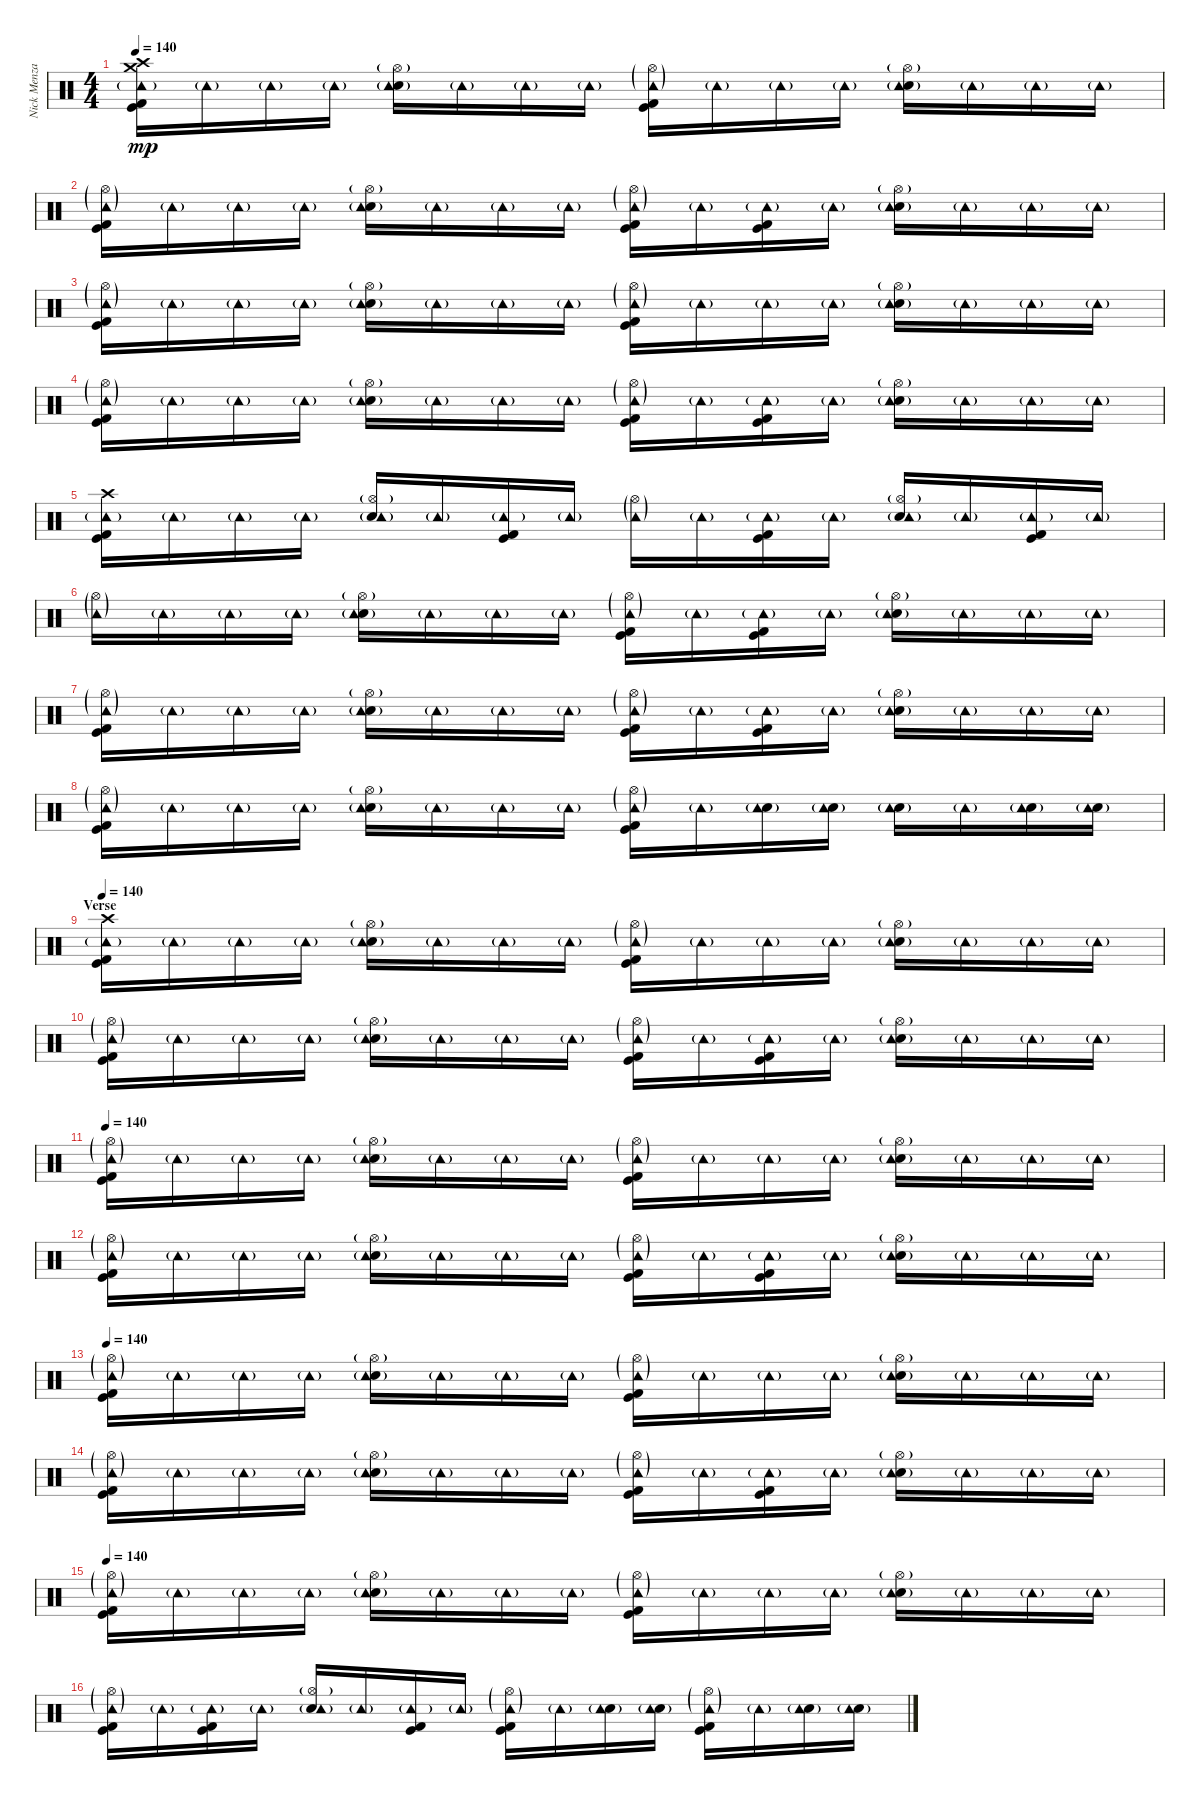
\track ("Nick Menza" "Nick Menza") {instrument percussion}
\staff {score}
\articulation defaults
\ts (4 4)
\tempo 140
\clef neutral
\ks c
("Crash high (hit)" "Crash medium (hit)" "Kick (hit)" "Kick (hit) 2" "Tambourine (hit)"{g}).16{dy mp} "Tambourine (hit)"{g}.16 "Tambourine (hit)"{g}.16 "Tambourine (hit)"{g}.16 ("Hi-Hat (open)"{g} "Electric Snare (hit)" "Tambourine (hit)"{g}).16 "Tambourine (hit)"{g}.16 "Tambourine (hit)"{g}.16 "Tambourine (hit)"{g}.16 ("Hi-Hat (open)"{g} "Kick (hit)" "Kick (hit) 2" "Tambourine (hit)"{g}).16 "Tambourine (hit)"{g}.16 "Tambourine (hit)"{g}.16 "Tambourine (hit)"{g}.16 ("Hi-Hat (open)"{g} "Electric Snare (hit)" "Tambourine (hit)"{g}).16 "Tambourine (hit)"{g}.16 "Tambourine (hit)"{g}.16 "Tambourine (hit)"{g}.16 |
("Hi-Hat (open)"{g} "Kick (hit)" "Kick (hit) 2" "Tambourine (hit)"{g}).16 "Tambourine (hit)"{g}.16 "Tambourine (hit)"{g}.16 "Tambourine (hit)"{g}.16 ("Hi-Hat (open)"{g} "Electric Snare (hit)" "Tambourine (hit)"{g}).16 "Tambourine (hit)"{g}.16 "Tambourine (hit)"{g}.16 "Tambourine (hit)"{g}.16 ("Hi-Hat (open)"{g} "Kick (hit)" "Kick (hit) 2" "Tambourine (hit)"{g}).16 "Tambourine (hit)"{g}.16 ("Kick (hit)" "Kick (hit) 2" "Tambourine (hit)"{g}).16 "Tambourine (hit)"{g}.16 ("Hi-Hat (open)"{g} "Electric Snare (hit)" "Tambourine (hit)"{g}).16 "Tambourine (hit)"{g}.16 "Tambourine (hit)"{g}.16 "Tambourine (hit)"{g}.16 |
("Hi-Hat (open)"{g} "Kick (hit)" "Kick (hit) 2" "Tambourine (hit)"{g}).16 "Tambourine (hit)"{g}.16 "Tambourine (hit)"{g}.16 "Tambourine (hit)"{g}.16 ("Hi-Hat (open)"{g} "Electric Snare (hit)" "Tambourine (hit)"{g}).16 "Tambourine (hit)"{g}.16 "Tambourine (hit)"{g}.16 "Tambourine (hit)"{g}.16 ("Hi-Hat (open)"{g} "Kick (hit)" "Kick (hit) 2" "Tambourine (hit)"{g}).16 "Tambourine (hit)"{g}.16 "Tambourine (hit)"{g}.16 "Tambourine (hit)"{g}.16 ("Hi-Hat (open)"{g} "Electric Snare (hit)" "Tambourine (hit)"{g}).16 "Tambourine (hit)"{g}.16 "Tambourine (hit)"{g}.16 "Tambourine (hit)"{g}.16 |
("Hi-Hat (open)"{g} "Kick (hit)" "Kick (hit) 2" "Tambourine (hit)"{g}).16 "Tambourine (hit)"{g}.16 "Tambourine (hit)"{g}.16 "Tambourine (hit)"{g}.16 ("Hi-Hat (open)"{g} "Electric Snare (hit)" "Tambourine (hit)"{g}).16 "Tambourine (hit)"{g}.16 "Tambourine (hit)"{g}.16 "Tambourine (hit)"{g}.16 ("Hi-Hat (open)"{g} "Kick (hit)" "Kick (hit) 2" "Tambourine (hit)"{g}).16 "Tambourine (hit)"{g}.16 ("Kick (hit)" "Kick (hit) 2" "Tambourine (hit)"{g}).16 "Tambourine (hit)"{g}.16 ("Hi-Hat (open)"{g} "Electric Snare (hit)" "Tambourine (hit)"{g}).16 "Tambourine (hit)"{g}.16 "Tambourine (hit)"{g}.16 "Tambourine (hit)"{g}.16 |
("Crash high (hit)" "Kick (hit)" "Kick (hit) 2" "Tambourine (hit)"{g}).16 "Tambourine (hit)"{g}.16 "Tambourine (hit)"{g}.16 "Tambourine (hit)"{g}.16 ("Hi-Hat (open)"{g} "Electric Snare (hit)" "Tambourine (hit)"{g}).16 "Tambourine (hit)"{g}.16 ("Kick (hit)" "Kick (hit) 2" "Tambourine (hit)"{g}).16 "Tambourine (hit)"{g}.16 ("Hi-Hat (open)"{g} "Tambourine (hit)"{g}).16 "Tambourine (hit)"{g}.16 ("Kick (hit)" "Kick (hit) 2" "Tambourine (hit)"{g}).16 "Tambourine (hit)"{g}.16 ("Hi-Hat (open)"{g} "Electric Snare (hit)" "Tambourine (hit)"{g}).16 "Tambourine (hit)"{g}.16 ("Kick (hit)" "Kick (hit) 2" "Tambourine (hit)"{g}).16 "Tambourine (hit)"{g}.16 |
("Hi-Hat (open)"{g} "Tambourine (hit)"{g}).16 "Tambourine (hit)"{g}.16 "Tambourine (hit)"{g}.16 "Tambourine (hit)"{g}.16 ("Hi-Hat (open)"{g} "Electric Snare (hit)" "Tambourine (hit)"{g}).16 "Tambourine (hit)"{g}.16 "Tambourine (hit)"{g}.16 "Tambourine (hit)"{g}.16 ("Hi-Hat (open)"{g} "Kick (hit)" "Kick (hit) 2" "Tambourine (hit)"{g}).16 "Tambourine (hit)"{g}.16 ("Kick (hit)" "Kick (hit) 2" "Tambourine (hit)"{g}).16 "Tambourine (hit)"{g}.16 ("Hi-Hat (open)"{g} "Electric Snare (hit)" "Tambourine (hit)"{g}).16 "Tambourine (hit)"{g}.16 "Tambourine (hit)"{g}.16 "Tambourine (hit)"{g}.16 |
("Hi-Hat (open)"{g} "Kick (hit)" "Kick (hit) 2" "Tambourine (hit)"{g}).16 "Tambourine (hit)"{g}.16 "Tambourine (hit)"{g}.16 "Tambourine (hit)"{g}.16 ("Hi-Hat (open)"{g} "Electric Snare (hit)" "Tambourine (hit)"{g}).16 "Tambourine (hit)"{g}.16 "Tambourine (hit)"{g}.16 "Tambourine (hit)"{g}.16 ("Hi-Hat (open)"{g} "Kick (hit)" "Kick (hit) 2" "Tambourine (hit)"{g}).16 "Tambourine (hit)"{g}.16 ("Kick (hit)" "Kick (hit) 2" "Tambourine (hit)"{g}).16 "Tambourine (hit)"{g}.16 ("Hi-Hat (open)"{g} "Electric Snare (hit)" "Tambourine (hit)"{g}).16 "Tambourine (hit)"{g}.16 "Tambourine (hit)"{g}.16 "Tambourine (hit)"{g}.16 |
("Hi-Hat (open)"{g} "Kick (hit)" "Kick (hit) 2" "Tambourine (hit)"{g}).16 "Tambourine (hit)"{g}.16 "Tambourine (hit)"{g}.16 "Tambourine (hit)"{g}.16 ("Hi-Hat (open)"{g} "Electric Snare (hit)" "Tambourine (hit)"{g}).16 "Tambourine (hit)"{g}.16 "Tambourine (hit)"{g}.16 "Tambourine (hit)"{g}.16 ("Hi-Hat (open)"{g} "Kick (hit)" "Kick (hit) 2" "Tambourine (hit)"{g}).16 "Tambourine (hit)"{g}.16 ("Electric Snare (hit)" "Tambourine (hit)"{g}).16 ("Electric Snare (hit)" "Tambourine (hit)"{g}).16 ("Electric Snare (hit)" "Tambourine (hit)"{g}).16 "Tambourine (hit)"{g}.16 ("Electric Snare (hit)" "Tambourine (hit)"{g}).16 ("Electric Snare (hit)" "Tambourine (hit)"{g}).16 |
\section ("" "Verse")
\tempo 140
("Crash high (hit)" "Kick (hit)" "Kick (hit) 2" "Tambourine (hit)"{g}).16 "Tambourine (hit)"{g}.16 "Tambourine (hit)"{g}.16 "Tambourine (hit)"{g}.16 ("Hi-Hat (open)"{g} "Electric Snare (hit)" "Tambourine (hit)"{g}).16 "Tambourine (hit)"{g}.16 "Tambourine (hit)"{g}.16 "Tambourine (hit)"{g}.16 ("Hi-Hat (open)"{g} "Kick (hit)" "Kick (hit) 2" "Tambourine (hit)"{g}).16 "Tambourine (hit)"{g}.16 "Tambourine (hit)"{g}.16 "Tambourine (hit)"{g}.16 ("Hi-Hat (open)"{g} "Electric Snare (hit)" "Tambourine (hit)"{g}).16 "Tambourine (hit)"{g}.16 "Tambourine (hit)"{g}.16 "Tambourine (hit)"{g}.16 |
("Hi-Hat (open)"{g} "Kick (hit)" "Kick (hit) 2" "Tambourine (hit)"{g}).16 "Tambourine (hit)"{g}.16 "Tambourine (hit)"{g}.16 "Tambourine (hit)"{g}.16 ("Hi-Hat (open)"{g} "Electric Snare (hit)" "Tambourine (hit)"{g}).16 "Tambourine (hit)"{g}.16 "Tambourine (hit)"{g}.16 "Tambourine (hit)"{g}.16 ("Hi-Hat (open)"{g} "Kick (hit)" "Kick (hit) 2" "Tambourine (hit)"{g}).16 "Tambourine (hit)"{g}.16 ("Kick (hit)" "Kick (hit) 2" "Tambourine (hit)"{g}).16 "Tambourine (hit)"{g}.16 ("Hi-Hat (open)"{g} "Electric Snare (hit)" "Tambourine (hit)"{g}).16 "Tambourine (hit)"{g}.16 "Tambourine (hit)"{g}.16 "Tambourine (hit)"{g}.16 |
\tempo 140
("Hi-Hat (open)"{g} "Kick (hit)" "Kick (hit) 2" "Tambourine (hit)"{g}).16 "Tambourine (hit)"{g}.16 "Tambourine (hit)"{g}.16 "Tambourine (hit)"{g}.16 ("Hi-Hat (open)"{g} "Electric Snare (hit)" "Tambourine (hit)"{g}).16 "Tambourine (hit)"{g}.16 "Tambourine (hit)"{g}.16 "Tambourine (hit)"{g}.16 ("Hi-Hat (open)"{g} "Kick (hit)" "Kick (hit) 2" "Tambourine (hit)"{g}).16 "Tambourine (hit)"{g}.16 "Tambourine (hit)"{g}.16 "Tambourine (hit)"{g}.16 ("Hi-Hat (open)"{g} "Electric Snare (hit)" "Tambourine (hit)"{g}).16 "Tambourine (hit)"{g}.16 "Tambourine (hit)"{g}.16 "Tambourine (hit)"{g}.16 |
("Hi-Hat (open)"{g} "Kick (hit)" "Kick (hit) 2" "Tambourine (hit)"{g}).16 "Tambourine (hit)"{g}.16 "Tambourine (hit)"{g}.16 "Tambourine (hit)"{g}.16 ("Hi-Hat (open)"{g} "Electric Snare (hit)" "Tambourine (hit)"{g}).16 "Tambourine (hit)"{g}.16 "Tambourine (hit)"{g}.16 "Tambourine (hit)"{g}.16 ("Hi-Hat (open)"{g} "Kick (hit)" "Kick (hit) 2" "Tambourine (hit)"{g}).16 "Tambourine (hit)"{g}.16 ("Kick (hit)" "Kick (hit) 2" "Tambourine (hit)"{g}).16 "Tambourine (hit)"{g}.16 ("Hi-Hat (open)"{g} "Electric Snare (hit)" "Tambourine (hit)"{g}).16 "Tambourine (hit)"{g}.16 "Tambourine (hit)"{g}.16 "Tambourine (hit)"{g}.16 |
\tempo 140
("Hi-Hat (open)"{g} "Kick (hit)" "Kick (hit) 2" "Tambourine (hit)"{g}).16 "Tambourine (hit)"{g}.16 "Tambourine (hit)"{g}.16 "Tambourine (hit)"{g}.16 ("Hi-Hat (open)"{g} "Electric Snare (hit)" "Tambourine (hit)"{g}).16 "Tambourine (hit)"{g}.16 "Tambourine (hit)"{g}.16 "Tambourine (hit)"{g}.16 ("Hi-Hat (open)"{g} "Kick (hit)" "Kick (hit) 2" "Tambourine (hit)"{g}).16 "Tambourine (hit)"{g}.16 "Tambourine (hit)"{g}.16 "Tambourine (hit)"{g}.16 ("Hi-Hat (open)"{g} "Electric Snare (hit)" "Tambourine (hit)"{g}).16 "Tambourine (hit)"{g}.16 "Tambourine (hit)"{g}.16 "Tambourine (hit)"{g}.16 |
("Hi-Hat (open)"{g} "Kick (hit)" "Kick (hit) 2" "Tambourine (hit)"{g}).16 "Tambourine (hit)"{g}.16 "Tambourine (hit)"{g}.16 "Tambourine (hit)"{g}.16 ("Hi-Hat (open)"{g} "Electric Snare (hit)" "Tambourine (hit)"{g}).16 "Tambourine (hit)"{g}.16 "Tambourine (hit)"{g}.16 "Tambourine (hit)"{g}.16 ("Hi-Hat (open)"{g} "Kick (hit)" "Kick (hit) 2" "Tambourine (hit)"{g}).16 "Tambourine (hit)"{g}.16 ("Kick (hit)" "Kick (hit) 2" "Tambourine (hit)"{g}).16 "Tambourine (hit)"{g}.16 ("Hi-Hat (open)"{g} "Electric Snare (hit)" "Tambourine (hit)"{g}).16 "Tambourine (hit)"{g}.16 "Tambourine (hit)"{g}.16 "Tambourine (hit)"{g}.16 |
\tempo 140
("Hi-Hat (open)"{g} "Kick (hit)" "Kick (hit) 2" "Tambourine (hit)"{g}).16 "Tambourine (hit)"{g}.16 "Tambourine (hit)"{g}.16 "Tambourine (hit)"{g}.16 ("Hi-Hat (open)"{g} "Electric Snare (hit)" "Tambourine (hit)"{g}).16 "Tambourine (hit)"{g}.16 "Tambourine (hit)"{g}.16 "Tambourine (hit)"{g}.16 ("Hi-Hat (open)"{g} "Kick (hit)" "Kick (hit) 2" "Tambourine (hit)"{g}).16 "Tambourine (hit)"{g}.16 "Tambourine (hit)"{g}.16 "Tambourine (hit)"{g}.16 ("Hi-Hat (open)"{g} "Electric Snare (hit)" "Tambourine (hit)"{g}).16 "Tambourine (hit)"{g}.16 "Tambourine (hit)"{g}.16 "Tambourine (hit)"{g}.16 |
("Hi-Hat (open)"{g} "Kick (hit)" "Kick (hit) 2" "Tambourine (hit)"{g}).16 "Tambourine (hit)"{g}.16 ("Kick (hit)" "Kick (hit) 2" "Tambourine (hit)"{g}).16 "Tambourine (hit)"{g}.16 ("Hi-Hat (open)"{g} "Electric Snare (hit)" "Tambourine (hit)"{g}).16 "Tambourine (hit)"{g}.16 ("Kick (hit)" "Kick (hit) 2" "Tambourine (hit)"{g}).16 "Tambourine (hit)"{g}.16 ("Hi-Hat (open)"{g} "Kick (hit)" "Kick (hit) 2" "Tambourine (hit)"{g}).16 "Tambourine (hit)"{g}.16 ("Electric Snare (hit)" "Tambourine (hit)"{g}).16 ("Electric Snare (hit)" "Tambourine (hit)"{g}).16 ("Hi-Hat (open)"{g} "Kick (hit)" "Kick (hit) 2" "Tambourine (hit)"{g}).16 "Tambourine (hit)"{g}.16 ("Electric Snare (hit)" "Tambourine (hit)"{g}).16 ("Electric Snare (hit)" "Tambourine (hit)"{g}).16
